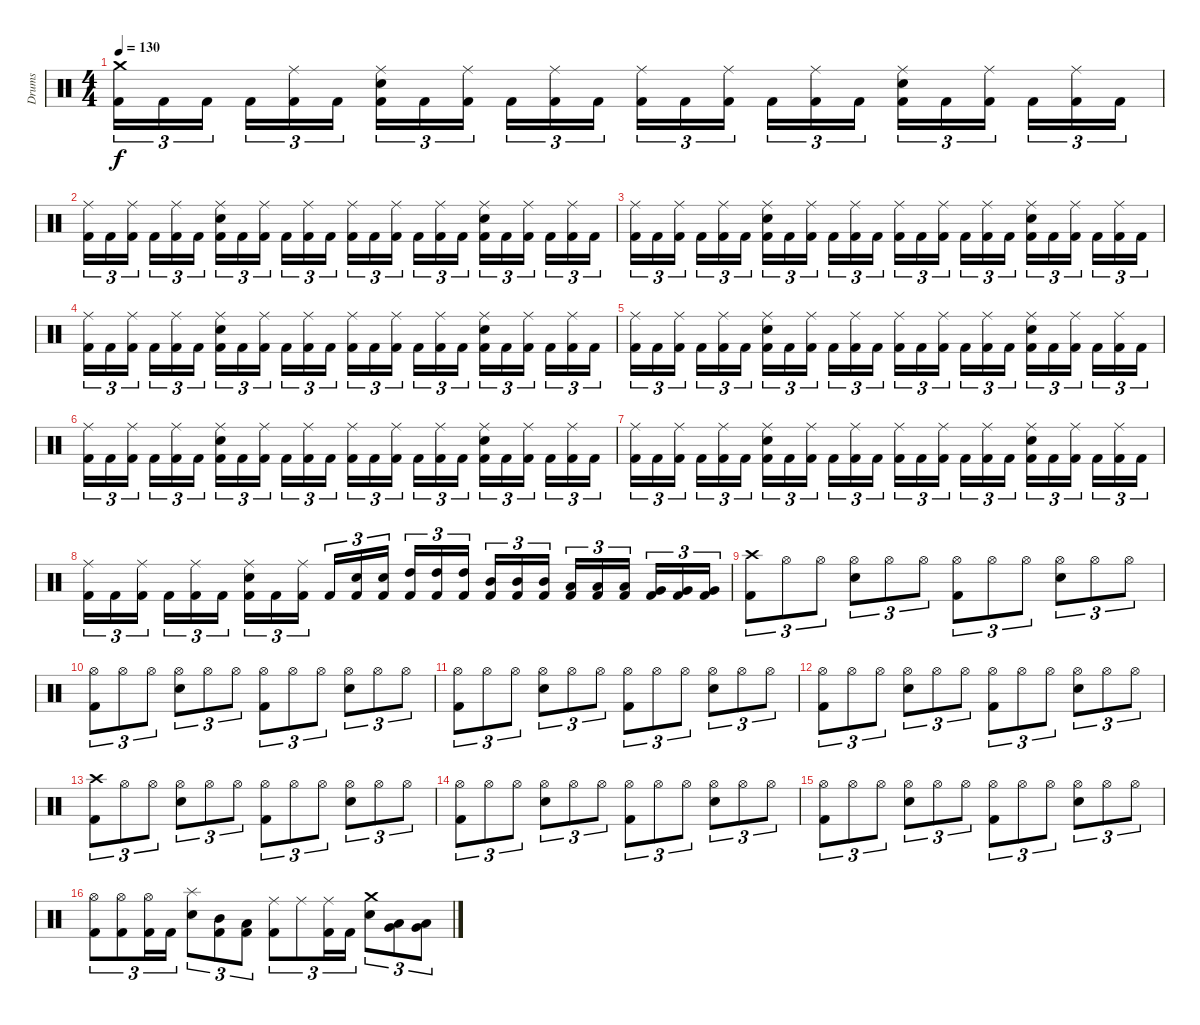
\track ("Drums" "Drums") {instrument percussion}
\staff {score}
\articulation defaults
\ts (4 4)
\tempo 130
\clef neutral
\ks c
("Kick (hit) 2" "Crash medium (hit)").16{tu (3 2) dy f volume 16} "Kick (hit) 2".16{tu (3 2)} "Kick (hit) 2".16{tu (3 2)} "Kick (hit) 2".16{tu (3 2)} ("Kick (hit) 2" "Ride (middle)").16{tu (3 2)} "Kick (hit) 2".16{tu (3 2)} ("Kick (hit) 2" "Electric Snare (hit)" "Ride (middle)").16{tu (3 2)} "Kick (hit) 2".16{tu (3 2)} ("Kick (hit) 2" "Ride (middle)").16{tu (3 2)} "Kick (hit) 2".16{tu (3 2)} ("Kick (hit) 2" "Ride (middle)").16{tu (3 2)} "Kick (hit) 2".16{tu (3 2)} ("Kick (hit) 2" "Ride (middle)").16{tu (3 2)} "Kick (hit) 2".16{tu (3 2)} ("Kick (hit) 2" "Ride (middle)").16{tu (3 2)} "Kick (hit) 2".16{tu (3 2)} ("Kick (hit) 2" "Ride (middle)").16{tu (3 2)} "Kick (hit) 2".16{tu (3 2)} ("Kick (hit) 2" "Electric Snare (hit)" "Ride (middle)").16{tu (3 2)} "Kick (hit) 2".16{tu (3 2)} ("Kick (hit) 2" "Ride (middle)").16{tu (3 2)} "Kick (hit) 2".16{tu (3 2)} ("Kick (hit) 2" "Ride (middle)").16{tu (3 2)} "Kick (hit) 2".16{tu (3 2)} |
("Kick (hit) 2" "Ride (middle)").16{tu (3 2)} "Kick (hit) 2".16{tu (3 2)} ("Kick (hit) 2" "Ride (middle)").16{tu (3 2)} "Kick (hit) 2".16{tu (3 2)} ("Kick (hit) 2" "Ride (middle)").16{tu (3 2)} "Kick (hit) 2".16{tu (3 2)} ("Kick (hit) 2" "Electric Snare (hit)" "Ride (middle)").16{tu (3 2)} "Kick (hit) 2".16{tu (3 2)} ("Kick (hit) 2" "Ride (middle)").16{tu (3 2)} "Kick (hit) 2".16{tu (3 2)} ("Kick (hit) 2" "Ride (middle)").16{tu (3 2)} "Kick (hit) 2".16{tu (3 2)} ("Kick (hit) 2" "Ride (middle)").16{tu (3 2)} "Kick (hit) 2".16{tu (3 2)} ("Kick (hit) 2" "Ride (middle)").16{tu (3 2)} "Kick (hit) 2".16{tu (3 2)} ("Kick (hit) 2" "Ride (middle)").16{tu (3 2)} "Kick (hit) 2".16{tu (3 2)} ("Kick (hit) 2" "Electric Snare (hit)" "Ride (middle)").16{tu (3 2)} "Kick (hit) 2".16{tu (3 2)} ("Kick (hit) 2" "Ride (middle)").16{tu (3 2)} "Kick (hit) 2".16{tu (3 2)} ("Kick (hit) 2" "Ride (middle)").16{tu (3 2)} "Kick (hit) 2".16{tu (3 2)} |
("Kick (hit) 2" "Ride (middle)").16{tu (3 2)} "Kick (hit) 2".16{tu (3 2)} ("Kick (hit) 2" "Ride (middle)").16{tu (3 2)} "Kick (hit) 2".16{tu (3 2)} ("Kick (hit) 2" "Ride (middle)").16{tu (3 2)} "Kick (hit) 2".16{tu (3 2)} ("Kick (hit) 2" "Electric Snare (hit)" "Ride (middle)").16{tu (3 2)} "Kick (hit) 2".16{tu (3 2)} ("Kick (hit) 2" "Ride (middle)").16{tu (3 2)} "Kick (hit) 2".16{tu (3 2)} ("Kick (hit) 2" "Ride (middle)").16{tu (3 2)} "Kick (hit) 2".16{tu (3 2)} ("Kick (hit) 2" "Ride (middle)").16{tu (3 2)} "Kick (hit) 2".16{tu (3 2)} ("Kick (hit) 2" "Ride (middle)").16{tu (3 2)} "Kick (hit) 2".16{tu (3 2)} ("Kick (hit) 2" "Ride (middle)").16{tu (3 2)} "Kick (hit) 2".16{tu (3 2)} ("Kick (hit) 2" "Electric Snare (hit)" "Ride (middle)").16{tu (3 2)} "Kick (hit) 2".16{tu (3 2)} ("Kick (hit) 2" "Ride (middle)").16{tu (3 2)} "Kick (hit) 2".16{tu (3 2)} ("Kick (hit) 2" "Ride (middle)").16{tu (3 2)} "Kick (hit) 2".16{tu (3 2)} |
("Kick (hit) 2" "Ride (middle)").16{tu (3 2)} "Kick (hit) 2".16{tu (3 2)} ("Kick (hit) 2" "Ride (middle)").16{tu (3 2)} "Kick (hit) 2".16{tu (3 2)} ("Kick (hit) 2" "Ride (middle)").16{tu (3 2)} "Kick (hit) 2".16{tu (3 2)} ("Kick (hit) 2" "Electric Snare (hit)" "Ride (middle)").16{tu (3 2)} "Kick (hit) 2".16{tu (3 2)} ("Kick (hit) 2" "Ride (middle)").16{tu (3 2)} "Kick (hit) 2".16{tu (3 2)} ("Kick (hit) 2" "Ride (middle)").16{tu (3 2)} "Kick (hit) 2".16{tu (3 2)} ("Kick (hit) 2" "Ride (middle)").16{tu (3 2)} "Kick (hit) 2".16{tu (3 2)} ("Kick (hit) 2" "Ride (middle)").16{tu (3 2)} "Kick (hit) 2".16{tu (3 2)} ("Kick (hit) 2" "Ride (middle)").16{tu (3 2)} "Kick (hit) 2".16{tu (3 2)} ("Kick (hit) 2" "Electric Snare (hit)" "Ride (middle)").16{tu (3 2)} "Kick (hit) 2".16{tu (3 2)} ("Kick (hit) 2" "Ride (middle)").16{tu (3 2)} "Kick (hit) 2".16{tu (3 2)} ("Kick (hit) 2" "Ride (middle)").16{tu (3 2)} "Kick (hit) 2".16{tu (3 2)} |
("Kick (hit) 2" "Ride (middle)").16{tu (3 2) volume 16} "Kick (hit) 2".16{tu (3 2)} ("Kick (hit) 2" "Ride (middle)").16{tu (3 2)} "Kick (hit) 2".16{tu (3 2)} ("Kick (hit) 2" "Ride (middle)").16{tu (3 2)} "Kick (hit) 2".16{tu (3 2)} ("Kick (hit) 2" "Electric Snare (hit)" "Ride (middle)").16{tu (3 2)} "Kick (hit) 2".16{tu (3 2)} ("Kick (hit) 2" "Ride (middle)").16{tu (3 2)} "Kick (hit) 2".16{tu (3 2)} ("Kick (hit) 2" "Ride (middle)").16{tu (3 2)} "Kick (hit) 2".16{tu (3 2)} ("Kick (hit) 2" "Ride (middle)").16{tu (3 2)} "Kick (hit) 2".16{tu (3 2)} ("Kick (hit) 2" "Ride (middle)").16{tu (3 2)} "Kick (hit) 2".16{tu (3 2)} ("Kick (hit) 2" "Ride (middle)").16{tu (3 2)} "Kick (hit) 2".16{tu (3 2)} ("Kick (hit) 2" "Electric Snare (hit)" "Ride (middle)").16{tu (3 2)} "Kick (hit) 2".16{tu (3 2)} ("Kick (hit) 2" "Ride (middle)").16{tu (3 2)} "Kick (hit) 2".16{tu (3 2)} ("Kick (hit) 2" "Ride (middle)").16{tu (3 2)} "Kick (hit) 2".16{tu (3 2)} |
("Kick (hit) 2" "Ride (middle)").16{tu (3 2)} "Kick (hit) 2".16{tu (3 2)} ("Kick (hit) 2" "Ride (middle)").16{tu (3 2)} "Kick (hit) 2".16{tu (3 2)} ("Kick (hit) 2" "Ride (middle)").16{tu (3 2)} "Kick (hit) 2".16{tu (3 2)} ("Kick (hit) 2" "Electric Snare (hit)" "Ride (middle)").16{tu (3 2)} "Kick (hit) 2".16{tu (3 2)} ("Kick (hit) 2" "Ride (middle)").16{tu (3 2)} "Kick (hit) 2".16{tu (3 2)} ("Kick (hit) 2" "Ride (middle)").16{tu (3 2)} "Kick (hit) 2".16{tu (3 2)} ("Kick (hit) 2" "Ride (middle)").16{tu (3 2)} "Kick (hit) 2".16{tu (3 2)} ("Kick (hit) 2" "Ride (middle)").16{tu (3 2)} "Kick (hit) 2".16{tu (3 2)} ("Kick (hit) 2" "Ride (middle)").16{tu (3 2)} "Kick (hit) 2".16{tu (3 2)} ("Kick (hit) 2" "Electric Snare (hit)" "Ride (middle)").16{tu (3 2)} "Kick (hit) 2".16{tu (3 2)} ("Kick (hit) 2" "Ride (middle)").16{tu (3 2)} "Kick (hit) 2".16{tu (3 2)} ("Kick (hit) 2" "Ride (middle)").16{tu (3 2)} "Kick (hit) 2".16{tu (3 2)} |
("Kick (hit) 2" "Ride (middle)").16{tu (3 2)} "Kick (hit) 2".16{tu (3 2)} ("Kick (hit) 2" "Ride (middle)").16{tu (3 2)} "Kick (hit) 2".16{tu (3 2)} ("Kick (hit) 2" "Ride (middle)").16{tu (3 2)} "Kick (hit) 2".16{tu (3 2)} ("Kick (hit) 2" "Electric Snare (hit)" "Ride (middle)").16{tu (3 2)} "Kick (hit) 2".16{tu (3 2)} ("Kick (hit) 2" "Ride (middle)").16{tu (3 2)} "Kick (hit) 2".16{tu (3 2)} ("Kick (hit) 2" "Ride (middle)").16{tu (3 2)} "Kick (hit) 2".16{tu (3 2)} ("Kick (hit) 2" "Ride (middle)").16{tu (3 2)} "Kick (hit) 2".16{tu (3 2)} ("Kick (hit) 2" "Ride (middle)").16{tu (3 2)} "Kick (hit) 2".16{tu (3 2)} ("Kick (hit) 2" "Ride (middle)").16{tu (3 2)} "Kick (hit) 2".16{tu (3 2)} ("Kick (hit) 2" "Electric Snare (hit)" "Ride (middle)").16{tu (3 2)} "Kick (hit) 2".16{tu (3 2)} ("Kick (hit) 2" "Ride (middle)").16{tu (3 2)} "Kick (hit) 2".16{tu (3 2)} ("Kick (hit) 2" "Ride (middle)").16{tu (3 2)} "Kick (hit) 2".16{tu (3 2)} |
("Kick (hit) 2" "Ride (middle)").16{tu (3 2)} "Kick (hit) 2".16{tu (3 2)} ("Kick (hit) 2" "Ride (middle)").16{tu (3 2)} "Kick (hit) 2".16{tu (3 2)} ("Kick (hit) 2" "Ride (middle)").16{tu (3 2)} "Kick (hit) 2".16{tu (3 2)} ("Kick (hit) 2" "Electric Snare (hit)" "Ride (middle)").16{tu (3 2)} "Kick (hit) 2".16{tu (3 2)} ("Kick (hit) 2" "Ride (middle)").16{tu (3 2)} "Kick (hit) 2".16{tu (3 2)} ("Kick (hit) 2" "Electric Snare (hit)").16{tu (3 2)} ("Kick (hit) 2" "Electric Snare (hit)").16{tu (3 2)} ("Kick (hit) 2" "High Tom (hit)").16{tu (3 2)} ("Kick (hit) 2" "High Tom (hit)").16{tu (3 2)} ("Kick (hit) 2" "High Tom (hit)").16{tu (3 2)} ("Kick (hit) 2" "Mid Tom (hit)").16{tu (3 2)} ("Kick (hit) 2" "Mid Tom (hit)").16{tu (3 2)} ("Kick (hit) 2" "Mid Tom (hit)").16{tu (3 2)} ("Kick (hit) 2" "Low Tom (hit)").16{tu (3 2)} ("Kick (hit) 2" "Low Tom (hit)").16{tu (3 2)} ("Kick (hit) 2" "Low Tom (hit)").16{tu (3 2)} ("Kick (hit) 2" "Very Low Tom (hit)").16{tu (3 2)} ("Kick (hit) 2" "Very Low Tom (hit)").16{tu (3 2)} ("Kick (hit) 2" "Very Low Tom (hit)").16{tu (3 2)} |
("Kick (hit) 2" "Crash high (hit)").8{tu (3 2)} "Hi-Hat (open)".8{tu (3 2)} "Hi-Hat (open)".8{tu (3 2)} ("Electric Snare (hit)" "Hi-Hat (open)").8{tu (3 2)} "Hi-Hat (open)".8{tu (3 2)} "Hi-Hat (open)".8{tu (3 2)} ("Kick (hit) 2" "Hi-Hat (open)").8{tu (3 2)} "Hi-Hat (open)".8{tu (3 2)} "Hi-Hat (open)".8{tu (3 2)} ("Electric Snare (hit)" "Hi-Hat (open)").8{tu (3 2)} "Hi-Hat (open)".8{tu (3 2)} "Hi-Hat (open)".8{tu (3 2)} |
("Kick (hit) 2" "Hi-Hat (open)").8{tu (3 2)} "Hi-Hat (open)".8{tu (3 2)} "Hi-Hat (open)".8{tu (3 2)} ("Electric Snare (hit)" "Hi-Hat (open)").8{tu (3 2)} "Hi-Hat (open)".8{tu (3 2)} "Hi-Hat (open)".8{tu (3 2)} ("Kick (hit) 2" "Hi-Hat (open)").8{tu (3 2)} "Hi-Hat (open)".8{tu (3 2)} "Hi-Hat (open)".8{tu (3 2)} ("Electric Snare (hit)" "Hi-Hat (open)").8{tu (3 2)} "Hi-Hat (open)".8{tu (3 2)} "Hi-Hat (open)".8{tu (3 2)} |
("Kick (hit) 2" "Hi-Hat (open)").8{tu (3 2)} "Hi-Hat (open)".8{tu (3 2)} "Hi-Hat (open)".8{tu (3 2)} ("Electric Snare (hit)" "Hi-Hat (open)").8{tu (3 2)} "Hi-Hat (open)".8{tu (3 2)} "Hi-Hat (open)".8{tu (3 2)} ("Kick (hit) 2" "Hi-Hat (open)").8{tu (3 2)} "Hi-Hat (open)".8{tu (3 2)} "Hi-Hat (open)".8{tu (3 2)} ("Electric Snare (hit)" "Hi-Hat (open)").8{tu (3 2)} "Hi-Hat (open)".8{tu (3 2)} "Hi-Hat (open)".8{tu (3 2)} |
("Kick (hit) 2" "Hi-Hat (open)").8{tu (3 2)} "Hi-Hat (open)".8{tu (3 2)} "Hi-Hat (open)".8{tu (3 2)} ("Electric Snare (hit)" "Hi-Hat (open)").8{tu (3 2)} "Hi-Hat (open)".8{tu (3 2)} "Hi-Hat (open)".8{tu (3 2)} ("Kick (hit) 2" "Hi-Hat (open)").8{tu (3 2)} "Hi-Hat (open)".8{tu (3 2)} "Hi-Hat (open)".8{tu (3 2)} ("Electric Snare (hit)" "Hi-Hat (open)").8{tu (3 2)} "Hi-Hat (open)".8{tu (3 2)} "Hi-Hat (open)".8{tu (3 2)} |
("Kick (hit) 2" "Crash high (hit)").8{tu (3 2)} "Hi-Hat (open)".8{tu (3 2)} "Hi-Hat (open)".8{tu (3 2)} ("Electric Snare (hit)" "Hi-Hat (open)").8{tu (3 2)} "Hi-Hat (open)".8{tu (3 2)} "Hi-Hat (open)".8{tu (3 2)} ("Kick (hit) 2" "Hi-Hat (open)").8{tu (3 2)} "Hi-Hat (open)".8{tu (3 2)} "Hi-Hat (open)".8{tu (3 2)} ("Electric Snare (hit)" "Hi-Hat (open)").8{tu (3 2)} "Hi-Hat (open)".8{tu (3 2)} "Hi-Hat (open)".8{tu (3 2)} |
("Kick (hit) 2" "Hi-Hat (open)").8{tu (3 2)} "Hi-Hat (open)".8{tu (3 2)} "Hi-Hat (open)".8{tu (3 2)} ("Electric Snare (hit)" "Hi-Hat (open)").8{tu (3 2)} "Hi-Hat (open)".8{tu (3 2)} "Hi-Hat (open)".8{tu (3 2)} ("Kick (hit) 2" "Hi-Hat (open)").8{tu (3 2)} "Hi-Hat (open)".8{tu (3 2)} "Hi-Hat (open)".8{tu (3 2)} ("Electric Snare (hit)" "Hi-Hat (open)").8{tu (3 2)} "Hi-Hat (open)".8{tu (3 2)} "Hi-Hat (open)".8{tu (3 2)} |
("Kick (hit) 2" "Hi-Hat (open)").8{tu (3 2)} "Hi-Hat (open)".8{tu (3 2)} "Hi-Hat (open)".8{tu (3 2)} ("Electric Snare (hit)" "Hi-Hat (open)").8{tu (3 2)} "Hi-Hat (open)".8{tu (3 2)} "Hi-Hat (open)".8{tu (3 2)} ("Kick (hit) 2" "Hi-Hat (open)").8{tu (3 2)} "Hi-Hat (open)".8{tu (3 2)} "Hi-Hat (open)".8{tu (3 2)} ("Electric Snare (hit)" "Hi-Hat (open)").8{tu (3 2)} "Hi-Hat (open)".8{tu (3 2)} "Hi-Hat (open)".8{tu (3 2)} |
("Kick (hit) 2" "Hi-Hat (open)").8{tu (3 2)} ("Kick (hit) 2" "Hi-Hat (open)").8{tu (3 2)} ("Kick (hit) 2" "Hi-Hat (open)").16{tu (3 2)} "Kick (hit) 2".16{tu (3 2)} ("Electric Snare (hit)" "Splash (hit)").8{tu (3 2)} ("Kick (hit) 2" "Mid Tom (hit)").8{tu (3 2)} ("Kick (hit) 2" "Low Tom (hit)").8{tu (3 2)} ("Kick (hit) 2" "Ride (middle)").8{tu (3 2)} "Ride (middle)".8{tu (3 2)} ("Kick (hit) 2" "Ride (middle)").16{tu (3 2)} "Kick (hit) 2".16{tu (3 2)} ("Electric Snare (hit)" "Crash medium (hit)").8{tu (3 2)} ("Low Tom (hit)" "Very Low Tom (hit)").8{tu (3 2)} ("Low Tom (hit)" "Very Low Tom (hit)").8{tu (3 2)}
